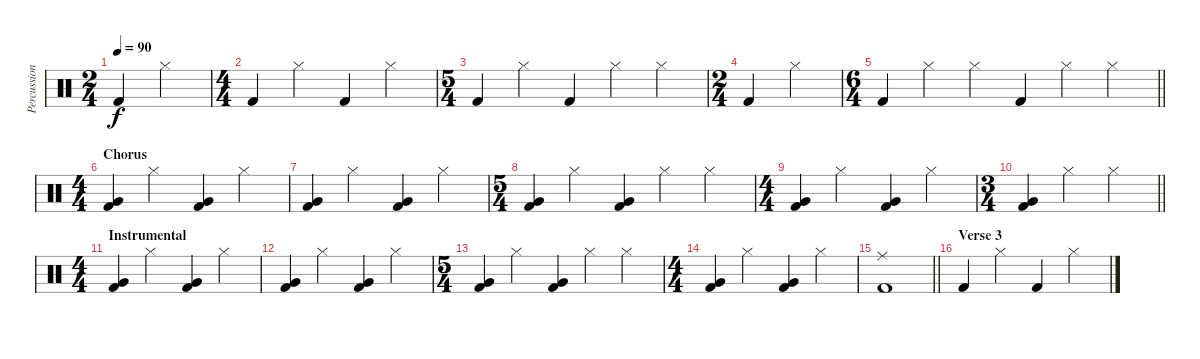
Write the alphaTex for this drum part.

\track ("Percussion" "Percussion") {instrument percussion}
\staff {score}
\articulation defaults
\ts (2 4)
\tempo 90
\clef neutral
\ks c "Kick (hit) 2".4{dy f volume 3} "Hi-Hat (closed)".4{volume 13}
|
\ts (4 4)
"Kick (hit) 2".4{volume 3} "Hi-Hat (closed)".4{volume 13} "Kick (hit) 2".4{volume 3} "Hi-Hat (closed)".4{volume 13} |
\ts (5 4)
"Kick (hit) 2".4{volume 3} "Hi-Hat (closed)".4{volume 13} "Kick (hit) 2".4{volume 3} "Hi-Hat (closed)".4{volume 13} "Hi-Hat (closed)".4 |
\ts (2 4)
"Kick (hit) 2".4{volume 3} "Hi-Hat (closed)".4{volume 13} |
\ts (6 4)
\barLineRight lightlight "Kick (hit) 2".4{volume 3} "Hi-Hat (closed)".4{volume 13} "Hi-Hat (closed)".4 "Kick (hit) 2".4{volume 3} "Hi-Hat (closed)".4{volume 13} "Hi-Hat (closed)".4
|
\ts (4 4)
\section ("" "Chorus")
("Very Low Tom (hit)" "Kick (hit) 2").4{volume 3} "Hi-Hat (closed)".4{volume 13} ("Very Low Tom (hit)" "Kick (hit) 2").4{volume 3} "Hi-Hat (closed)".4{volume 13} |
("Very Low Tom (hit)" "Kick (hit) 2").4{volume 3} "Hi-Hat (closed)".4{volume 13} ("Very Low Tom (hit)" "Kick (hit) 2").4{volume 3} "Hi-Hat (closed)".4{volume 13} |
\ts (5 4)
("Very Low Tom (hit)" "Kick (hit) 2").4{volume 3} "Hi-Hat (closed)".4{volume 13} ("Very Low Tom (hit)" "Kick (hit) 2").4{volume 3} "Hi-Hat (closed)".4{volume 13} "Hi-Hat (closed)".4 |
\ts (4 4)
("Very Low Tom (hit)" "Kick (hit) 2").4{volume 3} "Hi-Hat (closed)".4{volume 13} ("Very Low Tom (hit)" "Kick (hit) 2").4{volume 3} "Hi-Hat (closed)".4{volume 13} |
\ts (3 4)
\barLineRight lightlight
("Very Low Tom (hit)" "Kick (hit) 2").4{volume 3} "Hi-Hat (closed)".4{volume 13} "Hi-Hat (closed)".4 |
\ts (4 4)
\section ("" "Instrumental")
("Very Low Tom (hit)" "Kick (hit) 2").4{volume 3} "Hi-Hat (closed)".4{volume 13} ("Very Low Tom (hit)" "Kick (hit) 2").4{volume 3} "Hi-Hat (closed)".4{volume 13} |
("Very Low Tom (hit)" "Kick (hit) 2").4{volume 3} "Hi-Hat (closed)".4{volume 13} ("Very Low Tom (hit)" "Kick (hit) 2").4{volume 3} "Hi-Hat (closed)".4{volume 13} |
\ts (5 4)
("Very Low Tom (hit)" "Kick (hit) 2").4{volume 3} "Hi-Hat (closed)".4{volume 13} ("Very Low Tom (hit)" "Kick (hit) 2").4{volume 3} "Hi-Hat (closed)".4{volume 13} "Hi-Hat (closed)".4 |
\ts (4 4)
("Very Low Tom (hit)" "Kick (hit) 2").4{volume 3} "Hi-Hat (closed)".4{volume 13} ("Very Low Tom (hit)" "Kick (hit) 2").4{volume 3} "Hi-Hat (closed)".4{volume 13} |
\barLineRight lightlight
("Ride (middle)" "Kick (hit) 2").1{volume 3} |
\section ("" "Verse 3")
"Kick (hit) 2".4{volume 3} "Hi-Hat (closed)".4{volume 13} "Kick (hit) 2".4{volume 3} "Hi-Hat (closed)".4{volume 13}
